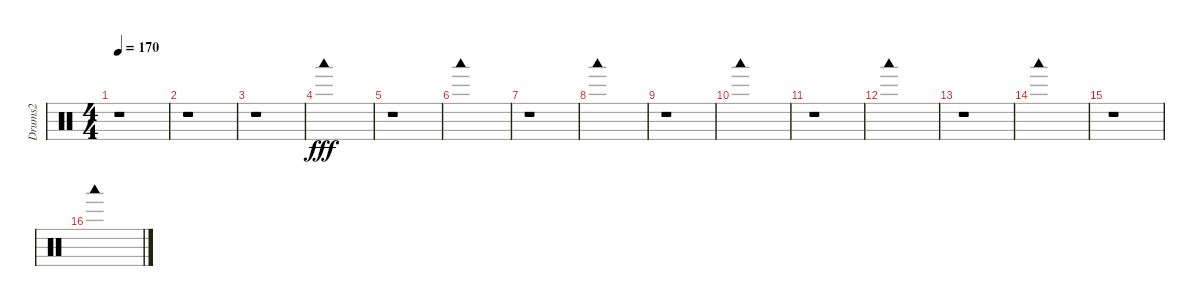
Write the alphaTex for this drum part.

\track ("Drums2" "Drums2") {instrument percussion}
\staff {score}
\articulation defaults
\ts (4 4)
\tempo 170
\clef neutral
\ks c
r.1{dy fff} |
r.1 |
r.1 |
"Woodblock low (hit)".1 |
r.1 |
"Woodblock low (hit)".1 |
r.1 |
"Woodblock low (hit)".1 |
r.1 |
"Woodblock low (hit)".1 |
r.1 |
"Woodblock low (hit)".1 |
r.1 |
"Woodblock low (hit)".1 |
r.1 |
"Woodblock low (hit)".1
